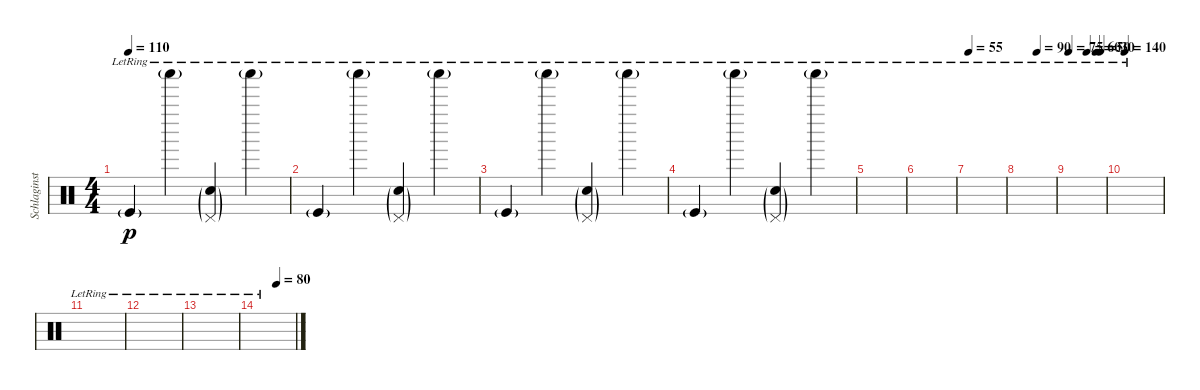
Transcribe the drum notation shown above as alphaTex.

\track ("Schlaginstrumente - Auswahl" "Schlaginst") {instrument percussion}
\staff {score}
\articulation defaults
\ts (4 4)
\tempo 110
\clef neutral
\ks c "Kick (hit)"{g lr}.4{dy p} "Shaker (hit)"{g lr}.4
("Snare (hit) 2"{g lr} "Pedal Hi-Hat (hit)"{g lr}).4 "Shaker (hit)"{g lr}.4 |
"Kick (hit)"{g lr}.4 "Shaker (hit)"{g lr}.4 ("Snare (hit) 2"{g lr} "Pedal Hi-Hat (hit)"{g lr}).4 "Shaker (hit)"{g lr}.4 |
"Kick (hit)"{g lr}.4 "Shaker (hit)"{g lr}.4 ("Snare (hit) 2"{g lr} "Pedal Hi-Hat (hit)"{g lr}).4 "Shaker (hit)"{g lr}.4 |
"Kick (hit)"{g lr}.4 "Shaker (hit)"{g lr}.4 ("Snare (hit) 2"{g lr} "Pedal Hi-Hat (hit)"{g lr}).4 "Shaker (hit)"{g lr}.4 |
|
|
\tempo 55
|
\tempo (90 0.5)
|
\tempo 75
\tempo (60 0.5)
\tempo (50 0.75)
\tempo (30 0.875)
|
\tempo 140
|
|
|
|
\tempo (80 0.5)
